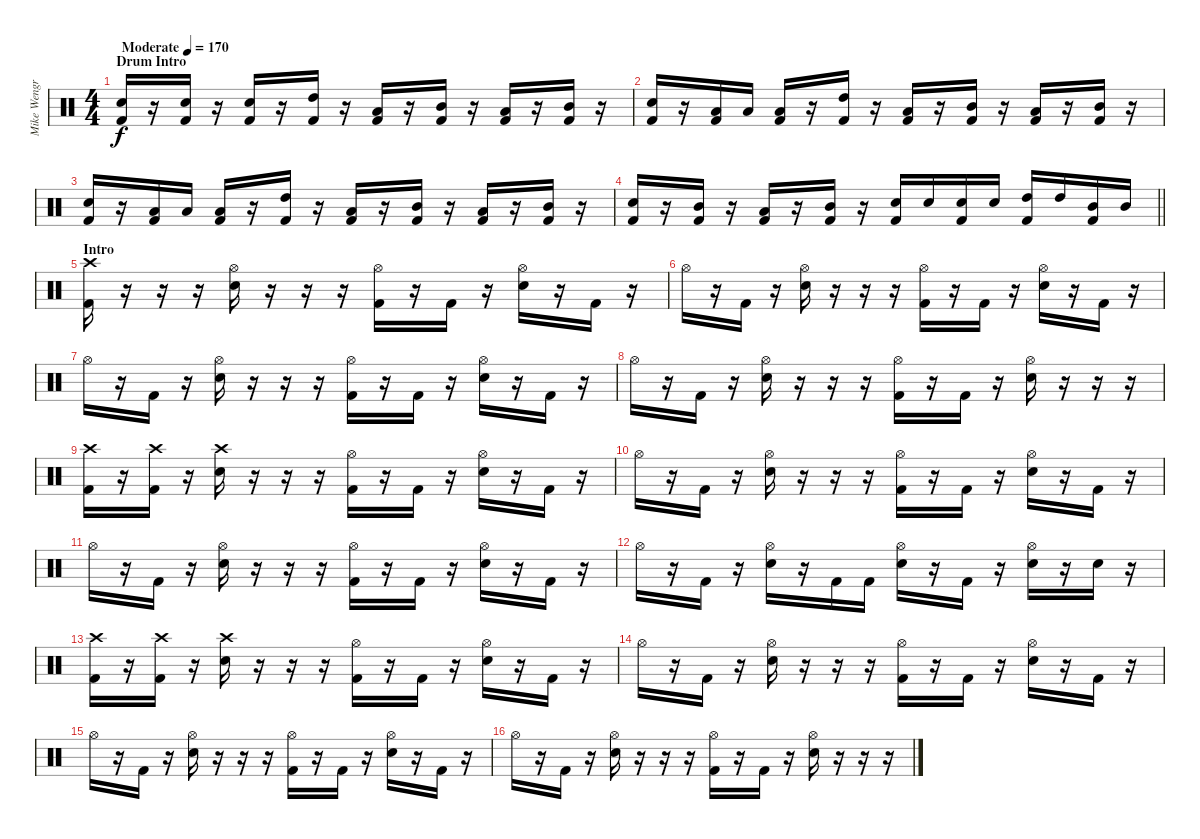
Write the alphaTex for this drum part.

\track ("Mike Wengren" "Mike Wengr") {instrument percussion}
\staff {score}
\articulation defaults
\ts (4 4)
\section ("" "Drum Intro")
\tempo (170 "Moderate")
\clef neutral
\ks c
("Snare (hit) 2" "Kick (hit) 2").16{dy f} r.16 ("Snare (hit) 2" "Kick (hit) 2").16 r.16 ("Snare (hit) 2" "Kick (hit) 2").16 r.16 ("High Tom (hit)" "Kick (hit) 2").16 r.16 ("Low Tom (hit)" "Kick (hit) 2").16 r.16 ("Mid Tom (hit)" "Kick (hit) 2").16 r.16 ("Low Tom (hit)" "Kick (hit) 2").16 r.16 ("Mid Tom (hit)" "Kick (hit) 2").16 r.16 |
("Snare (hit) 2" "Kick (hit) 2").16 r.16 ("Low Tom (hit)" "Kick (hit) 2").16 "Low Tom (hit)".16 ("Low Tom (hit)" "Kick (hit) 2").16 r.16 ("High Tom (hit)" "Kick (hit) 2").16 r.16 ("Low Tom (hit)" "Kick (hit) 2").16 r.16 ("Mid Tom (hit)" "Kick (hit) 2").16 r.16 ("Low Tom (hit)" "Kick (hit) 2").16 r.16 ("Mid Tom (hit)" "Kick (hit) 2").16 r.16 |
("Snare (hit) 2" "Kick (hit) 2").16 r.16 ("Low Tom (hit)" "Kick (hit) 2").16 "Low Tom (hit)".16 ("Low Tom (hit)" "Kick (hit) 2").16 r.16 ("High Tom (hit)" "Kick (hit) 2").16 r.16 ("Low Tom (hit)" "Kick (hit) 2").16 r.16 ("Mid Tom (hit)" "Kick (hit) 2").16 r.16 ("Low Tom (hit)" "Kick (hit) 2").16 r.16 ("Mid Tom (hit)" "Kick (hit) 2").16 r.16 |
\barLineRight lightlight
("Snare (hit) 2" "Kick (hit) 2").16 r.16 ("Mid Tom (hit)" "Kick (hit) 2").16 r.16 ("Low Tom (hit)" "Kick (hit) 2").16 r.16 ("Mid Tom (hit)" "Kick (hit) 2").16 r.16 ("Snare (hit) 2" "Kick (hit) 2").16 "Snare (hit) 2".16 ("Snare (hit) 2" "Kick (hit) 2").16 "Snare (hit) 2".16 ("High Tom (hit)" "Kick (hit) 2").16 "High Tom (hit)".16 ("Mid Tom (hit)" "Kick (hit) 2").16 "Mid Tom (hit)".16 |
\section ("" "Intro")
("Crash high (hit)" "Kick (hit) 2").16 r.16 r.16 r.16 ("Hi-Hat (open)" "Snare (hit) 2").16 r.16 r.16 r.16 ("Hi-Hat (open)" "Kick (hit) 2").16 r.16 "Kick (hit) 2".16 r.16 ("Hi-Hat (open)" "Snare (hit) 2").16 r.16 "Kick (hit) 2".16 r.16 |
"Hi-Hat (open)".16 r.16 "Kick (hit) 2".16 r.16 ("Hi-Hat (open)" "Snare (hit) 2").16 r.16 r.16 r.16 ("Hi-Hat (open)" "Kick (hit) 2").16 r.16 "Kick (hit) 2".16 r.16 ("Hi-Hat (open)" "Snare (hit) 2").16 r.16 "Kick (hit) 2".16 r.16 |
"Hi-Hat (open)".16 r.16 "Kick (hit) 2".16 r.16 ("Hi-Hat (open)" "Snare (hit) 2").16 r.16 r.16 r.16 ("Hi-Hat (open)" "Kick (hit) 2").16 r.16 "Kick (hit) 2".16 r.16 ("Hi-Hat (open)" "Snare (hit) 2").16 r.16 "Kick (hit) 2".16 r.16 |
"Hi-Hat (open)".16 r.16 "Kick (hit) 2".16 r.16 ("Hi-Hat (open)" "Snare (hit) 2").16 r.16 r.16 r.16 ("Hi-Hat (open)" "Kick (hit) 2").16 r.16 "Kick (hit) 2".16 r.16 ("Hi-Hat (open)" "Snare (hit) 2").16 r.16 r.16 r.16 |
("Crash high (hit)" "Kick (hit) 2").16 r.16 ("Crash high (hit)" "Kick (hit) 2").16 r.16 ("Crash high (hit)" "Snare (hit) 2").16 r.16 r.16 r.16 ("Hi-Hat (open)" "Kick (hit) 2").16 r.16 "Kick (hit) 2".16 r.16 ("Hi-Hat (open)" "Snare (hit) 2").16 r.16 "Kick (hit) 2".16 r.16 |
"Hi-Hat (open)".16 r.16 "Kick (hit) 2".16 r.16 ("Hi-Hat (open)" "Snare (hit) 2").16 r.16 r.16 r.16 ("Hi-Hat (open)" "Kick (hit) 2").16 r.16 "Kick (hit) 2".16 r.16 ("Hi-Hat (open)" "Snare (hit) 2").16 r.16 "Kick (hit) 2".16 r.16 |
"Hi-Hat (open)".16 r.16 "Kick (hit) 2".16 r.16 ("Hi-Hat (open)" "Snare (hit) 2").16 r.16 r.16 r.16 ("Hi-Hat (open)" "Kick (hit) 2").16 r.16 "Kick (hit) 2".16 r.16 ("Hi-Hat (open)" "Snare (hit) 2").16 r.16 "Kick (hit) 2".16 r.16 |
"Hi-Hat (open)".16 r.16 "Kick (hit) 2".16 r.16 ("Hi-Hat (open)" "Snare (hit) 2").16 r.16 "Kick (hit) 2".16 "Kick (hit) 2".16 ("Hi-Hat (open)" "Snare (hit) 2").16 r.16 "Kick (hit) 2".16 r.16 ("Hi-Hat (open)" "Snare (hit) 2").16 r.16 "Snare (hit) 2".16 r.16 |
("Crash high (hit)" "Kick (hit) 2").16 r.16 ("Crash high (hit)" "Kick (hit) 2").16 r.16 ("Crash high (hit)" "Snare (hit) 2").16 r.16 r.16 r.16 ("Hi-Hat (open)" "Kick (hit) 2").16 r.16 "Kick (hit) 2".16 r.16 ("Hi-Hat (open)" "Snare (hit) 2").16 r.16 "Kick (hit) 2".16 r.16 |
"Hi-Hat (open)".16 r.16 "Kick (hit) 2".16 r.16 ("Hi-Hat (open)" "Snare (hit) 2").16 r.16 r.16 r.16 ("Hi-Hat (open)" "Kick (hit) 2").16 r.16 "Kick (hit) 2".16 r.16 ("Hi-Hat (open)" "Snare (hit) 2").16 r.16 "Kick (hit) 2".16 r.16 |
"Hi-Hat (open)".16 r.16 "Kick (hit) 2".16 r.16 ("Hi-Hat (open)" "Snare (hit) 2").16 r.16 r.16 r.16 ("Hi-Hat (open)" "Kick (hit) 2").16 r.16 "Kick (hit) 2".16 r.16 ("Hi-Hat (open)" "Snare (hit) 2").16 r.16 "Kick (hit) 2".16 r.16 |
"Hi-Hat (open)".16 r.16 "Kick (hit) 2".16 r.16 ("Hi-Hat (open)" "Snare (hit) 2").16 r.16 r.16 r.16 ("Hi-Hat (open)" "Kick (hit) 2").16 r.16 "Kick (hit) 2".16 r.16 ("Hi-Hat (open)" "Snare (hit) 2").16 r.16 r.16 r.16
